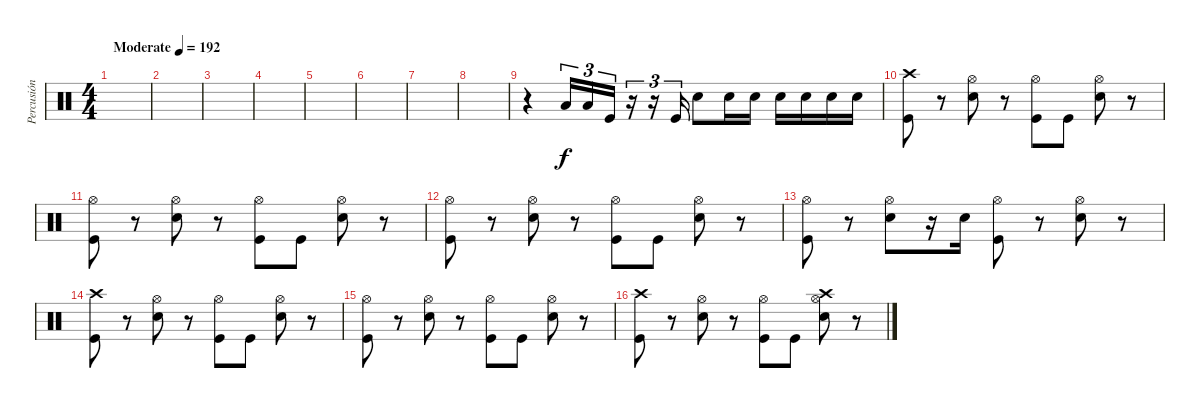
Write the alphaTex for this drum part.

\track ("Percusión" "Percusión") {instrument percussion}
\staff {score}
\articulation defaults
\ts (4 4)
\tempo (192 "Moderate")
\clef neutral
\ks c
|
|
|
|
|
|
|
|
r.4 "Low Tom (hit)".16{tu (3 2)} "Low Tom (hit)".16{tu (3 2)} "Kick (hit)".16{tu (3 2)} r.16{tu (3 2)} r.16{tu (3 2)} "Kick (hit)".16{tu (3 2)} "Electric Snare (hit)".8 "Electric Snare (hit)".16 "Electric Snare (hit)".16 "Electric Snare (hit)".16 "Electric Snare (hit)".16 "Electric Snare (hit)".16 "Electric Snare (hit)".16 |
("Kick (hit)" "Crash high (hit)").8 r.8 ("Electric Snare (hit)" "Hi-Hat (open)").8 r.8 ("Kick (hit)" "Hi-Hat (open)").8 "Kick (hit)".8 ("Electric Snare (hit)" "Hi-Hat (open)").8 r.8 |
("Kick (hit)" "Hi-Hat (open)").8 r.8 ("Electric Snare (hit)" "Hi-Hat (open)").8 r.8 ("Kick (hit)" "Hi-Hat (open)").8 "Kick (hit)".8 ("Electric Snare (hit)" "Hi-Hat (open)").8 r.8 |
("Kick (hit)" "Hi-Hat (open)").8 r.8 ("Electric Snare (hit)" "Hi-Hat (open)").8 r.8 ("Kick (hit)" "Hi-Hat (open)").8 "Kick (hit)".8 ("Electric Snare (hit)" "Hi-Hat (open)").8 r.8 |
("Kick (hit)" "Hi-Hat (open)").8 r.8 ("Electric Snare (hit)" "Hi-Hat (open)").8 r.16 "Electric Snare (hit)".16 ("Kick (hit)" "Hi-Hat (open)").8 r.8 ("Electric Snare (hit)" "Hi-Hat (open)").8 r.8 |
("Kick (hit)" "Crash high (hit)").8 r.8 ("Electric Snare (hit)" "Hi-Hat (open)").8 r.8 ("Kick (hit)" "Hi-Hat (open)").8 "Kick (hit)".8 ("Electric Snare (hit)" "Hi-Hat (open)").8 r.8 |
("Kick (hit)" "Hi-Hat (open)").8 r.8 ("Electric Snare (hit)" "Hi-Hat (open)").8 r.8 ("Kick (hit)" "Hi-Hat (open)").8 "Kick (hit)".8 ("Electric Snare (hit)" "Hi-Hat (open)").8 r.8 |
("Kick (hit)" "Crash high (hit)").8 r.8 ("Electric Snare (hit)" "Hi-Hat (open)").8 r.8 ("Kick (hit)" "Hi-Hat (open)").8 "Kick (hit)".8 ("Electric Snare (hit)" "Hi-Hat (open)" "Crash high (hit)").8 r.8
